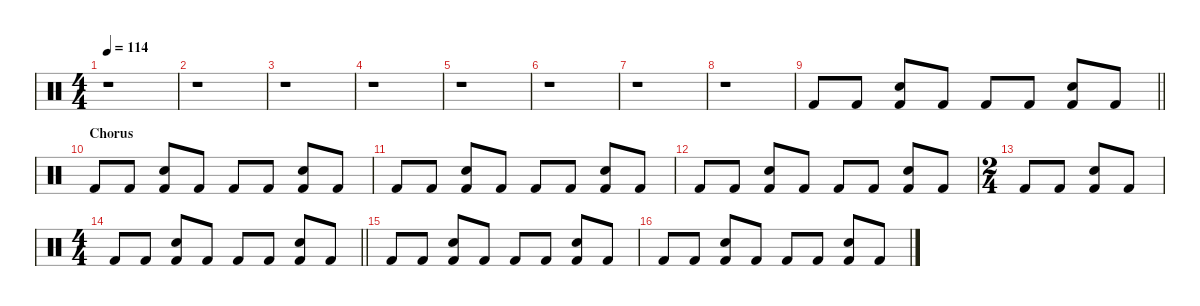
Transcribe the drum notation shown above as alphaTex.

\defaultSystemsLayout 4
\hideDynamics
\bracketExtendMode nobrackets
\singleTrackTrackNamePolicy hidden
\multiTrackTrackNamePolicy hidden
\firstSystemTrackNameMode fullname
\firstSystemTrackNameOrientation horizontal
\otherSystemsTrackNameOrientation horizontal
\track ("Percussion" "drm.") {defaultSystemsLayout 4 instrument percussion}
\staff {score}
\articulation defaults
\ts (4 4)
\tempo 114
\clef neutral
\ks c
r.1{dy fff beam Down} |
r.1{beam Down} |
r.1{beam Down} |
r.1{beam Down} |
r.1{beam Down} |
r.1{beam Down} |
r.1{beam Down} |
r.1{beam Down} |
\barLineRight lightlight "Kick (hit) 2".8{beam Up} "Kick (hit) 2".8{beam Up}
("Snare (hit) 2" "Kick (hit) 2").8{dy mf beam Up} "Kick (hit) 2".8{dy fff beam Up} "Kick (hit) 2".8{beam Up} "Kick (hit) 2".8{beam Up} ("Snare (hit) 2" "Kick (hit) 2").8{dy mf beam Up} "Kick (hit) 2".8{dy fff beam Up} |
\section ("" "Chorus")
"Kick (hit) 2".8{beam Up} "Kick (hit) 2".8{beam Up} ("Snare (hit) 2" "Kick (hit) 2").8{dy mf beam Up} "Kick (hit) 2".8{dy fff beam Up} "Kick (hit) 2".8{beam Up} "Kick (hit) 2".8{beam Up} ("Snare (hit) 2" "Kick (hit) 2").8{dy mf beam Up} "Kick (hit) 2".8{dy fff beam Up} |
"Kick (hit) 2".8{beam Up} "Kick (hit) 2".8{beam Up} ("Snare (hit) 2" "Kick (hit) 2").8{dy mf beam Up} "Kick (hit) 2".8{dy fff beam Up} "Kick (hit) 2".8{beam Up} "Kick (hit) 2".8{beam Up} ("Snare (hit) 2" "Kick (hit) 2").8{dy mf beam Up} "Kick (hit) 2".8{dy fff beam Up} |
"Kick (hit) 2".8{beam Up} "Kick (hit) 2".8{beam Up} ("Snare (hit) 2" "Kick (hit) 2").8{dy mf beam Up} "Kick (hit) 2".8{dy fff beam Up} "Kick (hit) 2".8{beam Up} "Kick (hit) 2".8{beam Up} ("Snare (hit) 2" "Kick (hit) 2").8{dy mf beam Up} "Kick (hit) 2".8{dy fff beam Up} |
\ts (2 4)
\beaming (8 2 2)
"Kick (hit) 2".8{beam Up} "Kick (hit) 2".8{beam Up} ("Snare (hit) 2" "Kick (hit) 2").8{dy mf beam Up} "Kick (hit) 2".8{dy fff beam Up} |
\ts (4 4)
\beaming (8 2 2 2 2)
\barLineRight lightlight "Kick (hit) 2".8{beam Up} "Kick (hit) 2".8{beam Up}
("Snare (hit) 2" "Kick (hit) 2").8{dy mf beam Up} "Kick (hit) 2".8{dy fff beam Up} "Kick (hit) 2".8{beam Up} "Kick (hit) 2".8{beam Up} ("Snare (hit) 2" "Kick (hit) 2").8{dy mf beam Up} "Kick (hit) 2".8{dy fff beam Up} |
"Kick (hit) 2".8{beam Up} "Kick (hit) 2".8{beam Up} ("Snare (hit) 2" "Kick (hit) 2").8{dy mf beam Up} "Kick (hit) 2".8{dy fff beam Up} "Kick (hit) 2".8{beam Up} "Kick (hit) 2".8{beam Up} ("Snare (hit) 2" "Kick (hit) 2").8{dy mf beam Up} "Kick (hit) 2".8{dy fff beam Up} |
"Kick (hit) 2".8{beam Up} "Kick (hit) 2".8{beam Up} ("Snare (hit) 2" "Kick (hit) 2").8{dy mf beam Up} "Kick (hit) 2".8{dy fff beam Up} "Kick (hit) 2".8{beam Up} "Kick (hit) 2".8{beam Up} ("Snare (hit) 2" "Kick (hit) 2").8{dy mf beam Up} "Kick (hit) 2".8{dy fff beam Up}
